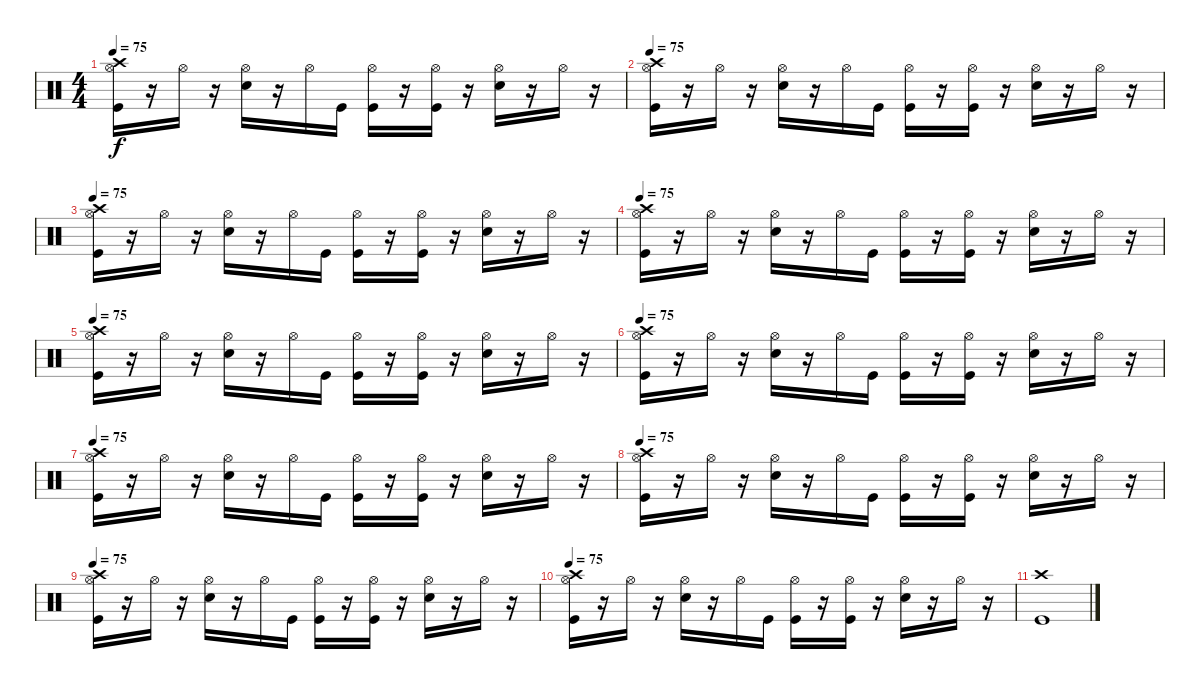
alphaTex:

\track "" {instrument percussion}
\staff {score}
\articulation defaults
\ts (4 4)
\tempo 75
\clef neutral
\ks c
("Hi-Hat (open)" "Kick (hit)" "Crash high (hit)").16{dy f} r.16 "Hi-Hat (open)".16 r.16 ("Hi-Hat (open)" "Snare (hit) 2").16 r.16 "Hi-Hat (open)".16 "Kick (hit)".16 ("Hi-Hat (open)" "Kick (hit)").16 r.16 ("Hi-Hat (open)" "Kick (hit)").16 r.16 ("Hi-Hat (open)" "Snare (hit) 2").16 r.16 "Hi-Hat (open)".16 r.16 |
\tempo 75
("Hi-Hat (open)" "Kick (hit)" "Crash high (hit)").16 r.16 "Hi-Hat (open)".16 r.16 ("Hi-Hat (open)" "Snare (hit) 2").16 r.16 "Hi-Hat (open)".16 "Kick (hit)".16 ("Hi-Hat (open)" "Kick (hit)").16 r.16 ("Hi-Hat (open)" "Kick (hit)").16 r.16 ("Hi-Hat (open)" "Snare (hit) 2").16 r.16 "Hi-Hat (open)".16 r.16 |
\tempo 75
("Hi-Hat (open)" "Kick (hit)" "Crash high (hit)").16 r.16 "Hi-Hat (open)".16 r.16 ("Hi-Hat (open)" "Snare (hit) 2").16 r.16 "Hi-Hat (open)".16 "Kick (hit)".16 ("Hi-Hat (open)" "Kick (hit)").16 r.16 ("Hi-Hat (open)" "Kick (hit)").16 r.16 ("Hi-Hat (open)" "Snare (hit) 2").16 r.16 "Hi-Hat (open)".16 r.16 |
\tempo 75
("Hi-Hat (open)" "Kick (hit)" "Crash high (hit)").16 r.16 "Hi-Hat (open)".16 r.16 ("Hi-Hat (open)" "Snare (hit) 2").16 r.16 "Hi-Hat (open)".16 "Kick (hit)".16 ("Hi-Hat (open)" "Kick (hit)").16 r.16 ("Hi-Hat (open)" "Kick (hit)").16 r.16 ("Hi-Hat (open)" "Snare (hit) 2").16 r.16 "Hi-Hat (open)".16 r.16 |
\tempo 75
("Hi-Hat (open)" "Kick (hit)" "Crash high (hit)").16 r.16 "Hi-Hat (open)".16 r.16 ("Hi-Hat (open)" "Snare (hit) 2").16 r.16 "Hi-Hat (open)".16 "Kick (hit)".16 ("Hi-Hat (open)" "Kick (hit)").16 r.16 ("Hi-Hat (open)" "Kick (hit)").16 r.16 ("Hi-Hat (open)" "Snare (hit) 2").16 r.16 "Hi-Hat (open)".16 r.16 |
\tempo 75
("Hi-Hat (open)" "Kick (hit)" "Crash high (hit)").16 r.16 "Hi-Hat (open)".16 r.16 ("Hi-Hat (open)" "Snare (hit) 2").16 r.16 "Hi-Hat (open)".16 "Kick (hit)".16 ("Hi-Hat (open)" "Kick (hit)").16 r.16 ("Hi-Hat (open)" "Kick (hit)").16 r.16 ("Hi-Hat (open)" "Snare (hit) 2").16 r.16 "Hi-Hat (open)".16 r.16 |
\tempo 75
("Hi-Hat (open)" "Kick (hit)" "Crash high (hit)").16 r.16 "Hi-Hat (open)".16 r.16 ("Hi-Hat (open)" "Snare (hit) 2").16 r.16 "Hi-Hat (open)".16 "Kick (hit)".16 ("Hi-Hat (open)" "Kick (hit)").16 r.16 ("Hi-Hat (open)" "Kick (hit)").16 r.16 ("Hi-Hat (open)" "Snare (hit) 2").16 r.16 "Hi-Hat (open)".16 r.16 |
\tempo 75
("Hi-Hat (open)" "Kick (hit)" "Crash high (hit)").16 r.16 "Hi-Hat (open)".16 r.16 ("Hi-Hat (open)" "Snare (hit) 2").16 r.16 "Hi-Hat (open)".16 "Kick (hit)".16 ("Hi-Hat (open)" "Kick (hit)").16 r.16 ("Hi-Hat (open)" "Kick (hit)").16 r.16 ("Hi-Hat (open)" "Snare (hit) 2").16 r.16 "Hi-Hat (open)".16 r.16 |
\tempo 75
("Hi-Hat (open)" "Kick (hit)" "Crash high (hit)").16 r.16 "Hi-Hat (open)".16 r.16 ("Hi-Hat (open)" "Snare (hit) 2").16 r.16 "Hi-Hat (open)".16 "Kick (hit)".16 ("Hi-Hat (open)" "Kick (hit)").16 r.16 ("Hi-Hat (open)" "Kick (hit)").16 r.16 ("Hi-Hat (open)" "Snare (hit) 2").16 r.16 "Hi-Hat (open)".16 r.16 |
\tempo 75
("Hi-Hat (open)" "Kick (hit)" "Crash high (hit)").16 r.16 "Hi-Hat (open)".16 r.16 ("Hi-Hat (open)" "Snare (hit) 2").16 r.16 "Hi-Hat (open)".16 "Kick (hit)".16 ("Hi-Hat (open)" "Kick (hit)").16 r.16 ("Hi-Hat (open)" "Kick (hit)").16 r.16 ("Hi-Hat (open)" "Snare (hit) 2").16 r.16 "Hi-Hat (open)".16 r.16 |
("Crash high (hit)" "Kick (hit)").1
